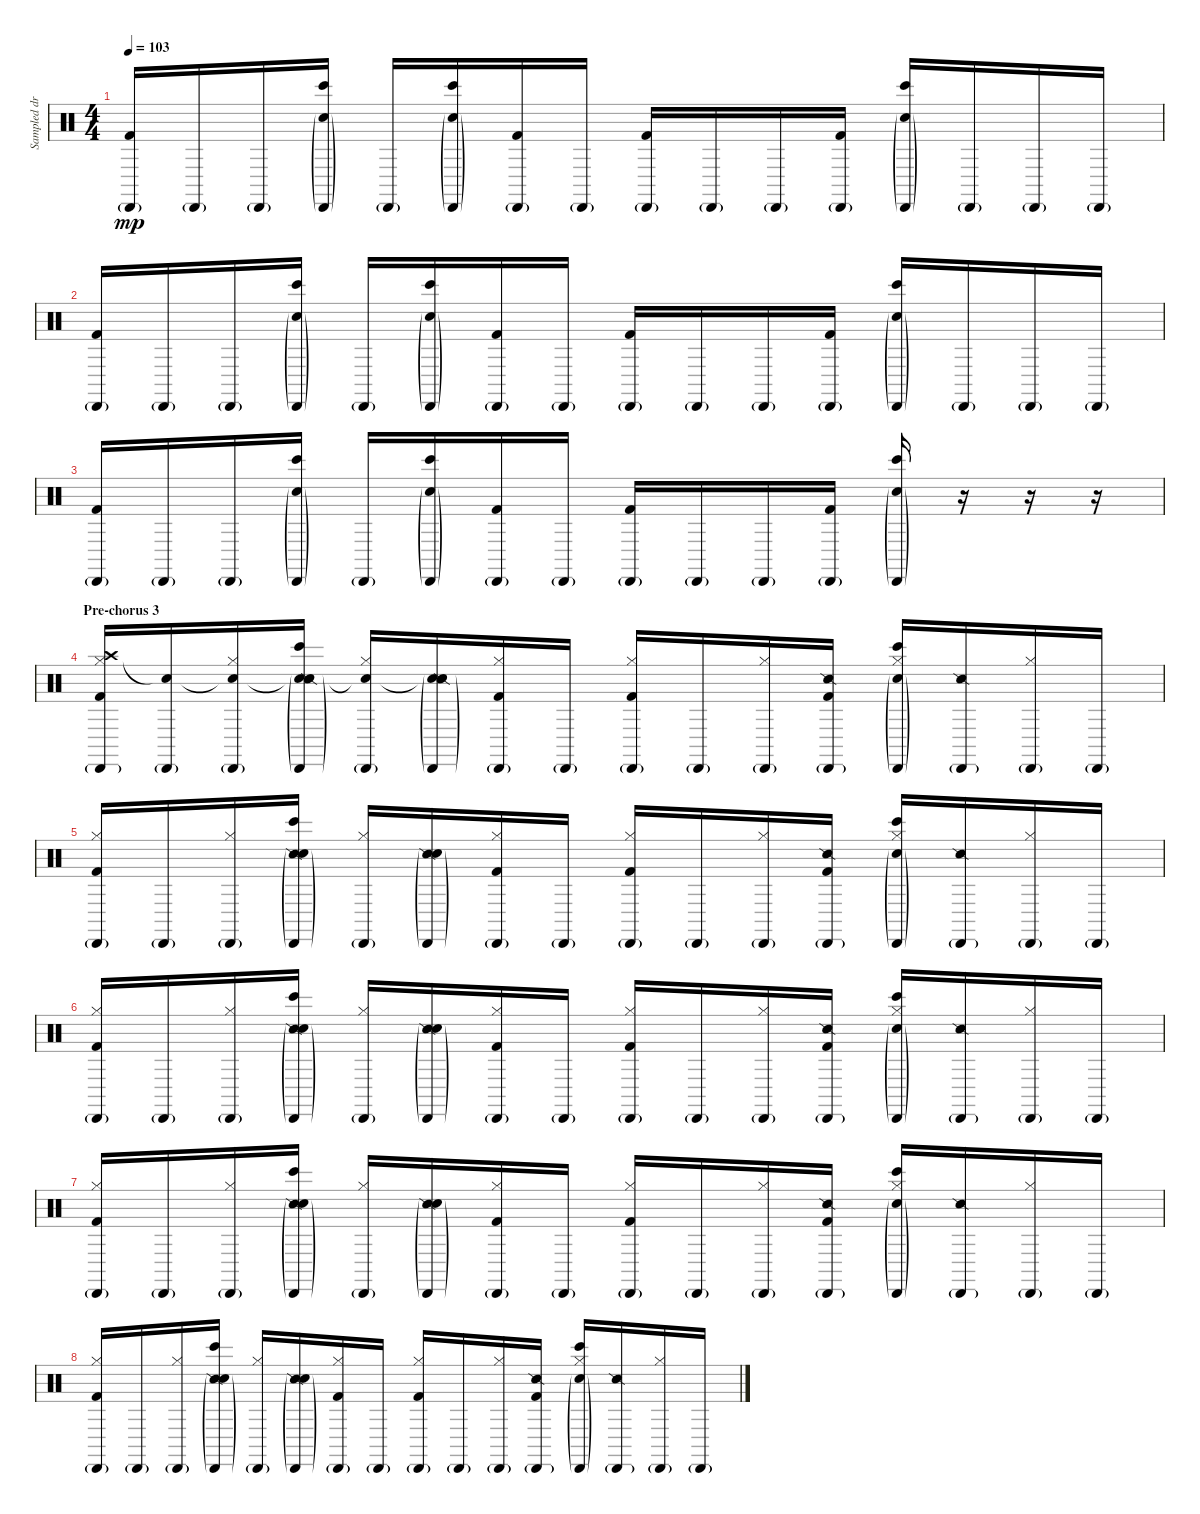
\track ("Sampled drums (Rob with Joe)" "Sampled dr") {instrument percussion}
\staff {score}
\articulation defaults
\ts (4 4)
\tempo 103
\clef neutral
\ks c
("Cabasa (hit)"{g} "Kick (hit) 2").16{dy mp volume 6} "Cabasa (hit)"{g}.16 "Cabasa (hit)"{g}.16 ("Cabasa (hit)"{g} "Bongo High (hit)" "Snare (hit) 2"{g}).16 "Cabasa (hit)"{g}.16 ("Cabasa (hit)"{g} "Bongo High (hit)" "Snare (hit) 2"{g}).16 ("Cabasa (hit)"{g} "Kick (hit) 2").16 "Cabasa (hit)"{g}.16 ("Cabasa (hit)"{g} "Kick (hit) 2").16 "Cabasa (hit)"{g}.16 "Cabasa (hit)"{g}.16 ("Cabasa (hit)"{g} "Kick (hit) 2").16 ("Cabasa (hit)"{g} "Bongo High (hit)" "Snare (hit) 2"{g}).16 "Cabasa (hit)"{g}.16 "Cabasa (hit)"{g}.16 "Cabasa (hit)"{g}.16 |
("Cabasa (hit)"{g} "Kick (hit) 2").16{volume 6} "Cabasa (hit)"{g}.16 "Cabasa (hit)"{g}.16 ("Cabasa (hit)"{g} "Bongo High (hit)" "Snare (hit) 2"{g}).16 "Cabasa (hit)"{g}.16 ("Cabasa (hit)"{g} "Bongo High (hit)" "Snare (hit) 2"{g}).16 ("Cabasa (hit)"{g} "Kick (hit) 2").16 "Cabasa (hit)"{g}.16 ("Cabasa (hit)"{g} "Kick (hit) 2").16 "Cabasa (hit)"{g}.16 "Cabasa (hit)"{g}.16 ("Cabasa (hit)"{g} "Kick (hit) 2").16 ("Cabasa (hit)"{g} "Bongo High (hit)" "Snare (hit) 2"{g}).16 "Cabasa (hit)"{g}.16 "Cabasa (hit)"{g}.16 "Cabasa (hit)"{g}.16 |
("Cabasa (hit)"{g} "Kick (hit) 2").16{volume 6} "Cabasa (hit)"{g}.16 "Cabasa (hit)"{g}.16 ("Cabasa (hit)"{g} "Bongo High (hit)" "Snare (hit) 2"{g}).16 "Cabasa (hit)"{g}.16 ("Cabasa (hit)"{g} "Bongo High (hit)" "Snare (hit) 2"{g}).16 ("Cabasa (hit)"{g} "Kick (hit) 2").16 "Cabasa (hit)"{g}.16 ("Cabasa (hit)"{g} "Kick (hit) 2").16 "Cabasa (hit)"{g}.16 "Cabasa (hit)"{g}.16 ("Cabasa (hit)"{g} "Kick (hit) 2").16 ("Cabasa (hit)"{g} "Bongo High (hit)" "Snare (hit) 2"{g}).16 r.16 r.16 r.16 |
\section ("" "Pre-chorus 3")
("Cabasa (hit)"{g} "Crash high (hit)" "Hi-Hat (closed)" "Kick (hit) 2").16 ("Cabasa (hit)"{g} "Snare (hit)"{t}).16 ("Cabasa (hit)"{g} "Snare (hit)"{t} "Hi-Hat (closed)").16 ("Cabasa (hit)"{g} "Snare (hit)"{t} "Snare (side stick) 2" "Bongo High (hit)" "Snare (hit) 2"{g}).16 ("Cabasa (hit)"{g} "Snare (hit)"{t} "Hi-Hat (closed)").16 ("Cabasa (hit)"{g} "Snare (hit)"{t} "Snare (side stick) 2" "Snare (hit) 2"{g}).16 ("Cabasa (hit)"{g} "Hi-Hat (closed)" "Kick (hit) 2").16 "Cabasa (hit)"{g}.16 ("Cabasa (hit)"{g} "Hi-Hat (closed)" "Kick (hit) 2").16 "Cabasa (hit)"{g}.16 ("Cabasa (hit)"{g} "Hi-Hat (closed)").16 ("Cabasa (hit)"{g} "Snare (side stick) 2" "Kick (hit) 2").16 ("Cabasa (hit)"{g} "Hi-Hat (closed)" "Bongo High (hit)" "Snare (hit) 2"{g}).16 ("Cabasa (hit)"{g} "Snare (side stick) 2").16 ("Cabasa (hit)"{g} "Hi-Hat (closed)").16 "Cabasa (hit)"{g}.16 |
("Cabasa (hit)"{g} "Hi-Hat (closed)" "Kick (hit) 2").16 "Cabasa (hit)"{g}.16 ("Cabasa (hit)"{g} "Hi-Hat (closed)").16 ("Cabasa (hit)"{g} "Snare (side stick) 2" "Bongo High (hit)" "Snare (hit) 2"{g}).16 ("Cabasa (hit)"{g} "Hi-Hat (closed)").16 ("Cabasa (hit)"{g} "Snare (side stick) 2" "Snare (hit) 2"{g}).16 ("Cabasa (hit)"{g} "Hi-Hat (closed)" "Kick (hit) 2").16 "Cabasa (hit)"{g}.16 ("Cabasa (hit)"{g} "Hi-Hat (closed)" "Kick (hit) 2").16 "Cabasa (hit)"{g}.16 ("Cabasa (hit)"{g} "Hi-Hat (closed)").16 ("Cabasa (hit)"{g} "Snare (side stick) 2" "Kick (hit) 2").16 ("Cabasa (hit)"{g} "Hi-Hat (closed)" "Bongo High (hit)" "Snare (hit) 2"{g}).16 ("Cabasa (hit)"{g} "Snare (side stick) 2").16 ("Cabasa (hit)"{g} "Hi-Hat (closed)").16 "Cabasa (hit)"{g}.16 |
("Cabasa (hit)"{g} "Hi-Hat (closed)" "Kick (hit) 2").16 "Cabasa (hit)"{g}.16 ("Cabasa (hit)"{g} "Hi-Hat (closed)").16 ("Cabasa (hit)"{g} "Snare (side stick) 2" "Bongo High (hit)" "Snare (hit) 2"{g}).16 ("Cabasa (hit)"{g} "Hi-Hat (closed)").16 ("Cabasa (hit)"{g} "Snare (side stick) 2" "Snare (hit) 2"{g}).16 ("Cabasa (hit)"{g} "Hi-Hat (closed)" "Kick (hit) 2").16 "Cabasa (hit)"{g}.16 ("Cabasa (hit)"{g} "Hi-Hat (closed)" "Kick (hit) 2").16 "Cabasa (hit)"{g}.16 ("Cabasa (hit)"{g} "Hi-Hat (closed)").16 ("Cabasa (hit)"{g} "Snare (side stick) 2" "Kick (hit) 2").16 ("Cabasa (hit)"{g} "Hi-Hat (closed)" "Bongo High (hit)" "Snare (hit) 2"{g}).16 ("Cabasa (hit)"{g} "Snare (side stick) 2").16 ("Cabasa (hit)"{g} "Hi-Hat (closed)").16 "Cabasa (hit)"{g}.16 |
("Cabasa (hit)"{g} "Hi-Hat (closed)" "Kick (hit) 2").16 "Cabasa (hit)"{g}.16 ("Cabasa (hit)"{g} "Hi-Hat (closed)").16 ("Cabasa (hit)"{g} "Snare (side stick) 2" "Bongo High (hit)" "Snare (hit) 2"{g}).16 ("Cabasa (hit)"{g} "Hi-Hat (closed)").16 ("Cabasa (hit)"{g} "Snare (side stick) 2" "Snare (hit) 2"{g}).16 ("Cabasa (hit)"{g} "Hi-Hat (closed)" "Kick (hit) 2").16 "Cabasa (hit)"{g}.16 ("Cabasa (hit)"{g} "Hi-Hat (closed)" "Kick (hit) 2").16 "Cabasa (hit)"{g}.16 ("Cabasa (hit)"{g} "Hi-Hat (closed)").16 ("Cabasa (hit)"{g} "Snare (side stick) 2" "Kick (hit) 2").16 ("Cabasa (hit)"{g} "Hi-Hat (closed)" "Bongo High (hit)" "Snare (hit) 2"{g}).16 ("Cabasa (hit)"{g} "Snare (side stick) 2").16 ("Cabasa (hit)"{g} "Hi-Hat (closed)").16 "Cabasa (hit)"{g}.16 |
("Cabasa (hit)"{g} "Hi-Hat (closed)" "Kick (hit) 2").16 "Cabasa (hit)"{g}.16 ("Cabasa (hit)"{g} "Hi-Hat (closed)").16 ("Cabasa (hit)"{g} "Snare (side stick) 2" "Bongo High (hit)" "Snare (hit) 2"{g}).16 ("Cabasa (hit)"{g} "Hi-Hat (closed)").16 ("Cabasa (hit)"{g} "Snare (side stick) 2" "Snare (hit) 2"{g}).16 ("Cabasa (hit)"{g} "Hi-Hat (closed)" "Kick (hit) 2").16 "Cabasa (hit)"{g}.16 ("Cabasa (hit)"{g} "Hi-Hat (closed)" "Kick (hit) 2").16 "Cabasa (hit)"{g}.16 ("Cabasa (hit)"{g} "Hi-Hat (closed)").16 ("Cabasa (hit)"{g} "Snare (side stick) 2" "Kick (hit) 2").16 ("Cabasa (hit)"{g} "Hi-Hat (closed)" "Bongo High (hit)" "Snare (hit) 2"{g}).16 ("Cabasa (hit)"{g} "Snare (side stick) 2").16 ("Cabasa (hit)"{g} "Hi-Hat (closed)").16 "Cabasa (hit)"{g}.16
